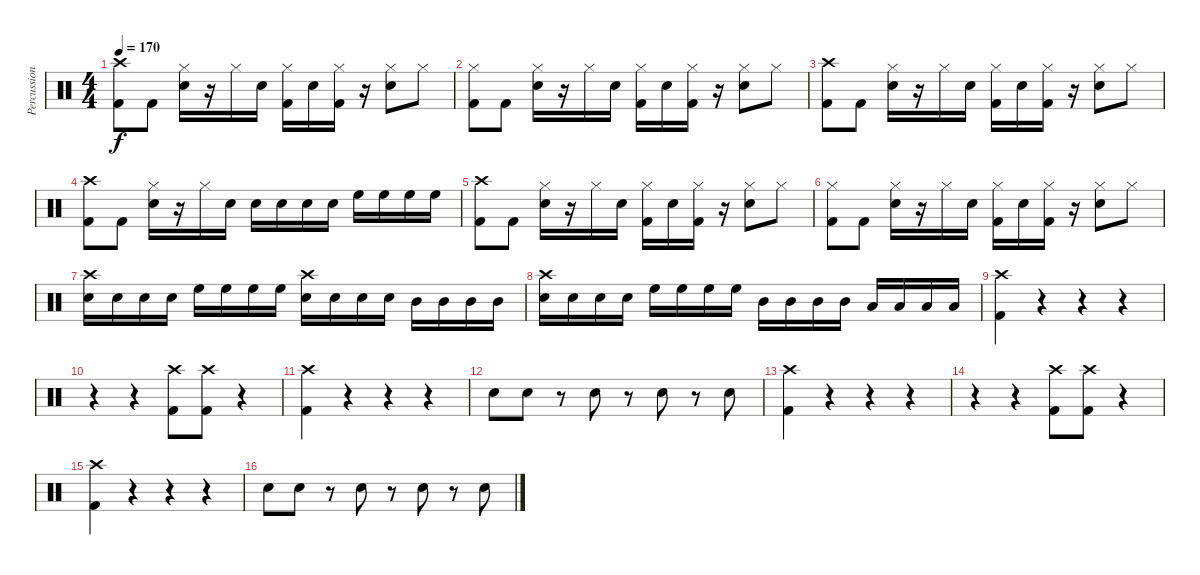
\track ("Percussions" "Percussion") {instrument percussion}
\staff {score}
\articulation defaults
\ts (4 4)
\tempo 170
\clef neutral
\ks c
("Kick (hit) 2" "Crash high (hit)").8{dy f} "Kick (hit) 2".8 ("Hi-Hat (closed)" "Snare (hit) 2").16 r.16 "Hi-Hat (closed)".16 "Snare (hit) 2".16 ("Hi-Hat (closed)" "Kick (hit) 2").16 "Snare (hit) 2".16 ("Hi-Hat (closed)" "Kick (hit) 2").16 r.16 ("Snare (hit) 2" "Hi-Hat (closed)").8 "Hi-Hat (closed)".8 |
("Kick (hit) 2" "Hi-Hat (closed)").8 "Kick (hit) 2".8 ("Hi-Hat (closed)" "Snare (hit) 2").16 r.16 "Hi-Hat (closed)".16 "Snare (hit) 2".16 ("Hi-Hat (closed)" "Kick (hit) 2").16 "Snare (hit) 2".16 ("Hi-Hat (closed)" "Kick (hit) 2").16 r.16 ("Snare (hit) 2" "Hi-Hat (closed)").8 "Hi-Hat (closed)".8 |
("Kick (hit) 2" "Crash high (hit)").8 "Kick (hit) 2".8 ("Hi-Hat (closed)" "Snare (hit) 2").16 r.16 "Hi-Hat (closed)".16 "Snare (hit) 2".16 ("Hi-Hat (closed)" "Kick (hit) 2").16 "Snare (hit) 2".16 ("Hi-Hat (closed)" "Kick (hit) 2").16 r.16 ("Snare (hit) 2" "Hi-Hat (closed)").8 "Hi-Hat (closed)".8 |
("Kick (hit) 2" "Crash high (hit)").8 "Kick (hit) 2".8 ("Hi-Hat (closed)" "Snare (hit) 2").16 r.16 "Hi-Hat (closed)".16 "Snare (hit) 2".16 "Snare (hit) 2".16 "Snare (hit) 2".16 "Snare (hit) 2".16 "Snare (hit) 2".16 "High Floor Tom (hit)".16 "High Floor Tom (hit)".16 "High Floor Tom (hit)".16 "High Floor Tom (hit)".16 |
("Kick (hit) 2" "Crash high (hit)").8 "Kick (hit) 2".8 ("Hi-Hat (closed)" "Snare (hit) 2").16 r.16 "Hi-Hat (closed)".16 "Snare (hit) 2".16 ("Hi-Hat (closed)" "Kick (hit) 2").16 "Snare (hit) 2".16 ("Hi-Hat (closed)" "Kick (hit) 2").16 r.16 ("Snare (hit) 2" "Hi-Hat (closed)").8 "Hi-Hat (closed)".8 |
("Kick (hit) 2" "Hi-Hat (closed)").8 "Kick (hit) 2".8 ("Hi-Hat (closed)" "Snare (hit) 2").16 r.16 "Hi-Hat (closed)".16 "Snare (hit) 2".16 ("Hi-Hat (closed)" "Kick (hit) 2").16 "Snare (hit) 2".16 ("Hi-Hat (closed)" "Kick (hit) 2").16 r.16 ("Snare (hit) 2" "Hi-Hat (closed)").8 "Hi-Hat (closed)".8 |
("Snare (hit) 2" "Crash high (hit)").16 "Snare (hit) 2".16 "Snare (hit) 2".16 "Snare (hit) 2".16 "High Floor Tom (hit)".16 "High Floor Tom (hit)".16 "High Floor Tom (hit)".16 "High Floor Tom (hit)".16 ("Snare (hit) 2" "Crash high (hit)").16 "Snare (hit) 2".16 "Snare (hit) 2".16 "Snare (hit) 2".16 "Mid Tom (hit)".16 "Mid Tom (hit)".16 "Mid Tom (hit)".16 "Mid Tom (hit)".16 |
("Snare (hit) 2" "Crash high (hit)").16 "Snare (hit) 2".16 "Snare (hit) 2".16 "Snare (hit) 2".16 "High Floor Tom (hit)".16 "High Floor Tom (hit)".16 "High Floor Tom (hit)".16 "High Floor Tom (hit)".16 "Mid Tom (hit)".16 "Mid Tom (hit)".16 "Mid Tom (hit)".16 "Mid Tom (hit)".16 "Low Tom (hit)".16 "Low Tom (hit)".16 "Low Tom (hit)".16 "Low Tom (hit)".16 |
("Crash high (hit)" "Kick (hit) 2").4 r.4 r.4 r.4 |
r.4 r.4 ("Crash high (hit)" "Kick (hit) 2").8 ("Crash high (hit)" "Kick (hit) 2").8 r.4 |
("Crash high (hit)" "Kick (hit) 2").4 r.4 r.4 r.4 |
"Snare (hit) 2".8 "Snare (hit) 2".8 r.8 "Snare (hit) 2".8 r.8 "Snare (hit) 2".8 r.8 "Snare (hit) 2".8 |
("Crash high (hit)" "Kick (hit) 2").4 r.4 r.4 r.4 |
r.4 r.4 ("Crash high (hit)" "Kick (hit) 2").8 ("Crash high (hit)" "Kick (hit) 2").8 r.4 |
("Crash high (hit)" "Kick (hit) 2").4 r.4 r.4 r.4 |
"Snare (hit) 2".8 "Snare (hit) 2".8 r.8 "Snare (hit) 2".8 r.8 "Snare (hit) 2".8 r.8 "Snare (hit) 2".8
